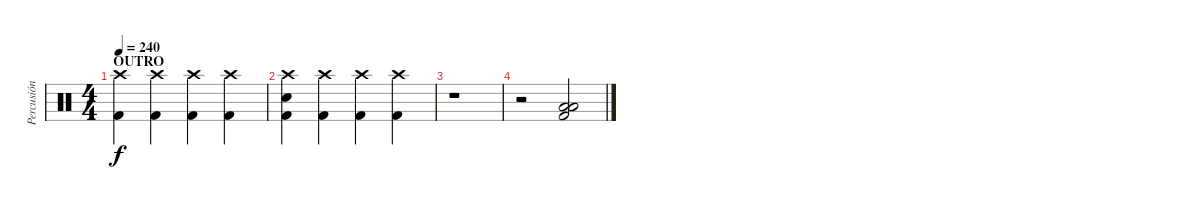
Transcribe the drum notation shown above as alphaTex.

\track ("Percusión" "Percusión") {instrument percussion}
\staff {score}
\articulation defaults
\ts (4 4)
\section ("" "OUTRO")
\tempo 240
\clef neutral
\ks c
("Crash high (hit)" "Kick (hit) 2").4{dy f} ("Crash high (hit)" "Kick (hit) 2").4 ("Crash high (hit)" "Kick (hit) 2").4 ("Crash high (hit)" "Kick (hit) 2").4 |
("Crash high (hit)" "Electric Snare (hit)" "Kick (hit) 2").4 ("Crash high (hit)" "Kick (hit) 2").4 ("Crash high (hit)" "Kick (hit) 2").4 ("Crash high (hit)" "Kick (hit) 2").4 |
r.1 |
r.2 ("Low Tom (hit)" "Low Floor Tom (hit)" "Kick (hit) 2").2
